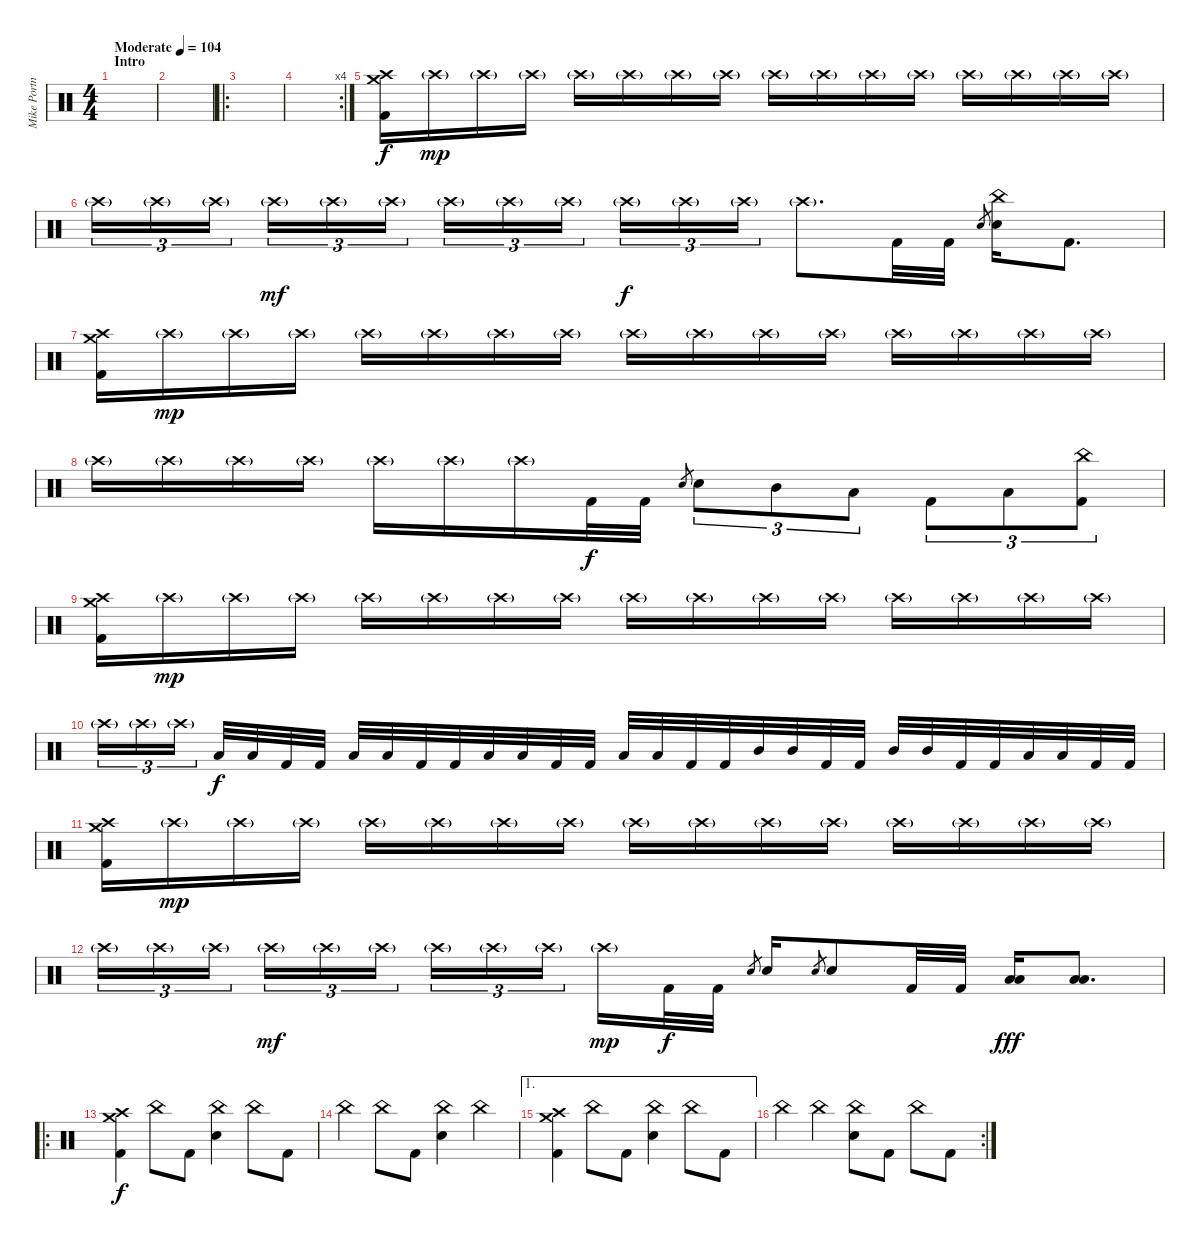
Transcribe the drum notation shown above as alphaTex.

\track ("Mike Portnoy" "Mike Portn") {instrument percussion}
\staff {score}
\articulation defaults
\ts (4 4)
\section ("" "Intro")
\tempo (104 "Moderate")
\clef neutral
\ks c
|
|
\ro
|
\rc 4
|
("Crash high (hit)" "Crash medium (hit)" "Kick (hit) 2").16 "Crash high (hit)"{g}.16{dy mp} "Crash high (hit)"{g}.16 "Crash high (hit)"{g}.16 "Crash high (hit)"{g}.16 "Crash high (hit)"{g}.16 "Crash high (hit)"{g}.16 "Crash high (hit)"{g}.16 "Crash high (hit)"{g}.16 "Crash high (hit)"{g}.16 "Crash high (hit)"{g}.16 "Crash high (hit)"{g}.16 "Crash high (hit)"{g}.16 "Crash high (hit)"{g}.16 "Crash high (hit)"{g}.16 "Crash high (hit)"{g}.16 |
"Crash high (hit)"{g}.16{tu (3 2)} "Crash high (hit)"{g}.16{tu (3 2)} "Crash high (hit)"{g}.16{tu (3 2) beam splitsecondary} "Crash high (hit)"{g}.16{tu (3 2) dy mf} "Crash high (hit)"{g}.16{tu (3 2)} "Crash high (hit)"{g}.16{tu (3 2)} "Crash high (hit)"{g}.16{tu (3 2)} "Crash high (hit)"{g}.16{tu (3 2)} "Crash high (hit)"{g}.16{tu (3 2) beam splitsecondary} "Crash high (hit)"{g}.16{tu (3 2) dy f} "Crash high (hit)"{g}.16{tu (3 2)} "Crash high (hit)"{g}.16{tu (3 2)} "Crash high (hit)"{g}.8{d} "Kick (hit) 2".32 "Kick (hit) 2".32 "Electric Snare (hit)".8{gr} ("China (hit)" "Electric Snare (hit)").16 "Kick (hit) 2".8{d} |
("Crash high (hit)" "Crash medium (hit)" "Kick (hit) 2").16 "Crash high (hit)"{g}.16{dy mp} "Crash high (hit)"{g}.16 "Crash high (hit)"{g}.16 "Crash high (hit)"{g}.16 "Crash high (hit)"{g}.16 "Crash high (hit)"{g}.16 "Crash high (hit)"{g}.16 "Crash high (hit)"{g}.16 "Crash high (hit)"{g}.16 "Crash high (hit)"{g}.16 "Crash high (hit)"{g}.16 "Crash high (hit)"{g}.16 "Crash high (hit)"{g}.16 "Crash high (hit)"{g}.16 "Crash high (hit)"{g}.16 |
"Crash high (hit)"{g}.16 "Crash high (hit)"{g}.16 "Crash high (hit)"{g}.16 "Crash high (hit)"{g}.16 "Crash high (hit)"{g}.16 "Crash high (hit)"{g}.16 "Crash high (hit)"{g}.16 "Kick (hit) 2".32{dy f} "Kick (hit) 2".32 "Electric Snare (hit)".8{gr} "Electric Snare (hit)".8{tu (3 2)} "Mid Tom (hit)".8{tu (3 2)} "Low Tom (hit)".8{tu (3 2)} "Kick (hit) 2".8{tu (3 2)} "Low Tom (hit)".8{tu (3 2)} ("China (hit)" "Kick (hit) 2").8{tu (3 2)} |
("Crash high (hit)" "Crash medium (hit)" "Kick (hit) 2").16 "Crash high (hit)"{g}.16{dy mp} "Crash high (hit)"{g}.16 "Crash high (hit)"{g}.16 "Crash high (hit)"{g}.16 "Crash high (hit)"{g}.16 "Crash high (hit)"{g}.16 "Crash high (hit)"{g}.16 "Crash high (hit)"{g}.16 "Crash high (hit)"{g}.16 "Crash high (hit)"{g}.16 "Crash high (hit)"{g}.16 "Crash high (hit)"{g}.16 "Crash high (hit)"{g}.16 "Crash high (hit)"{g}.16 "Crash high (hit)"{g}.16 |
"Crash high (hit)"{g}.16{tu (3 2)} "Crash high (hit)"{g}.16{tu (3 2)} "Crash high (hit)"{g}.16{tu (3 2) beam splitsecondary} "Low Floor Tom (hit)".32{dy f} "Low Floor Tom (hit)".32 "Kick (hit) 2".32 "Kick (hit) 2".32 "Low Floor Tom (hit)".32 "Low Floor Tom (hit)".32 "Kick (hit) 2".32 "Kick (hit) 2".32 "Low Tom (hit)".32 "Low Tom (hit)".32 "Kick (hit) 2".32 "Kick (hit) 2".32 "Low Tom (hit)".32 "Low Tom (hit)".32 "Kick (hit) 2".32 "Kick (hit) 2".32 "Mid Tom (hit)".32 "Mid Tom (hit)".32 "Kick (hit) 2".32 "Kick (hit) 2".32 "Mid Tom (hit)".32 "Mid Tom (hit)".32 "Kick (hit) 2".32 "Kick (hit) 2".32 "Low Floor Tom (hit)".32 "Low Floor Tom (hit)".32 "Kick (hit) 2".32 "Kick (hit) 2".32 |
("Crash high (hit)" "Crash medium (hit)" "Kick (hit) 2").16 "Crash high (hit)"{g}.16{dy mp} "Crash high (hit)"{g}.16 "Crash high (hit)"{g}.16 "Crash high (hit)"{g}.16 "Crash high (hit)"{g}.16 "Crash high (hit)"{g}.16 "Crash high (hit)"{g}.16 "Crash high (hit)"{g}.16 "Crash high (hit)"{g}.16 "Crash high (hit)"{g}.16 "Crash high (hit)"{g}.16 "Crash high (hit)"{g}.16 "Crash high (hit)"{g}.16 "Crash high (hit)"{g}.16 "Crash high (hit)"{g}.16 |
"Crash high (hit)"{g}.16{tu (3 2)} "Crash high (hit)"{g}.16{tu (3 2)} "Crash high (hit)"{g}.16{tu (3 2) beam splitsecondary} "Crash high (hit)"{g}.16{tu (3 2) dy mf} "Crash high (hit)"{g}.16{tu (3 2)} "Crash high (hit)"{g}.16{tu (3 2)} "Crash high (hit)"{g}.16{tu (3 2)} "Crash high (hit)"{g}.16{tu (3 2)} "Crash high (hit)"{g}.16{tu (3 2) beam splitsecondary} "Crash high (hit)"{g}.16{dy mp} "Kick (hit) 2".32{dy f} "Kick (hit) 2".32 "Electric Snare (hit)".8{gr} "Electric Snare (hit)".16 "Electric Snare (hit)".8{gr} "Electric Snare (hit)".8 "Kick (hit) 2".32 "Kick (hit) 2".32 ("Low Tom (hit)" "Low Floor Tom (hit)").16{dy fff} ("Low Tom (hit)" "Low Floor Tom (hit)").8{d} |
\ro
("Crash medium (hit)" "Crash high (hit)" "Kick (hit) 2").4{dy f} "China (hit)".8 "Kick (hit) 2".8 ("China (hit)" "Electric Snare (hit)").4 "China (hit)".8 "Kick (hit) 2".8 |
"China (hit)".4 "China (hit)".8 "Kick (hit) 2".8 ("China (hit)" "Electric Snare (hit)").4 "China (hit)".4 |
\ae 1
("Crash medium (hit)" "Crash high (hit)" "Kick (hit) 2").4 "China (hit)".8 "Kick (hit) 2".8 ("China (hit)" "Electric Snare (hit)").4 "China (hit)".8 "Kick (hit) 2".8 |
\rc 2 "China (hit)".4 "China (hit)".4
("China (hit)" "Electric Snare (hit)").8 "Kick (hit) 2".8 "China (hit)".8 "Kick (hit) 2".8
